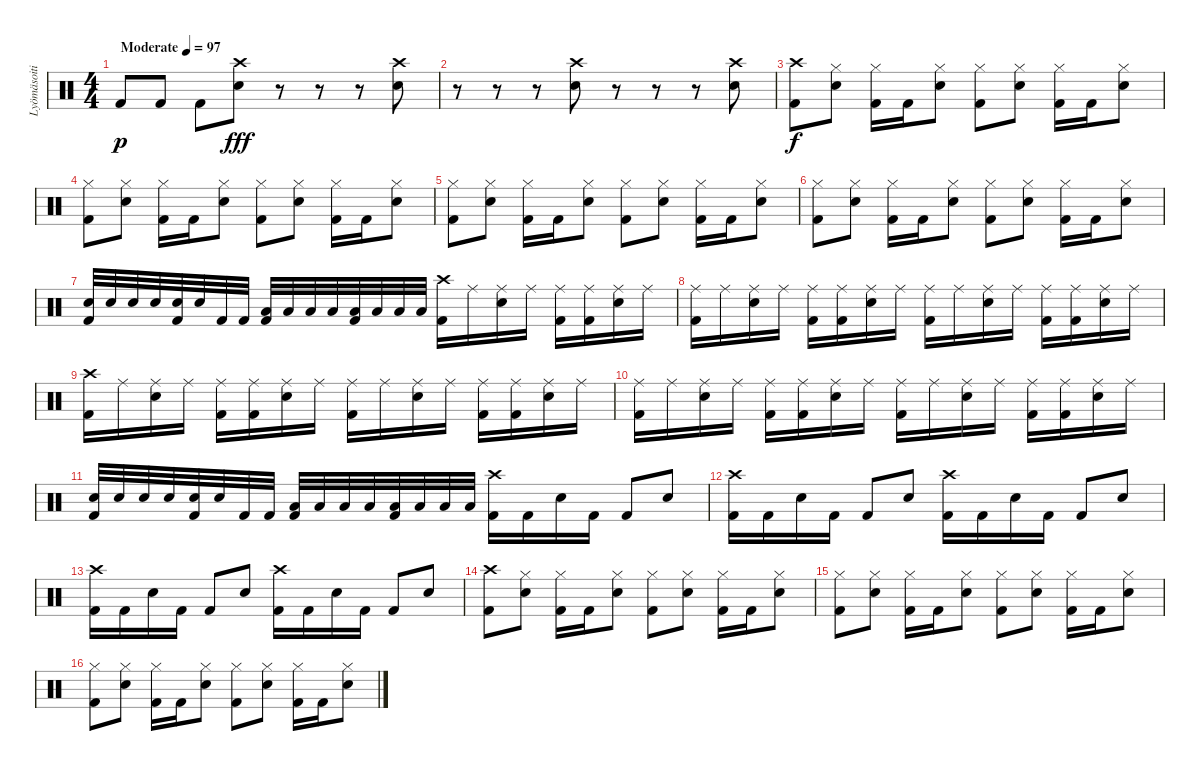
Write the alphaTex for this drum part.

\track ("Lyömäsoitin" "Lyömäsoiti") {mute instrument percussion}
\staff {score}
\articulation defaults
\ts (4 4)
\tempo (97 "Moderate")
\clef neutral
\ks c "Kick (hit) 2".8{dy p} "Kick (hit) 2".8 "Kick (hit) 2".8
("Crash high (hit)" "Snare (hit) 2").8{dy fff} r.8 r.8 r.8 ("Crash high (hit)" "Snare (hit) 2").8 |
r.8 r.8 r.8 ("Crash high (hit)" "Snare (hit) 2").8 r.8 r.8 r.8 ("Crash high (hit)" "Snare (hit) 2").8 |
("Crash high (hit)" "Kick (hit) 2").8{dy f} ("Hi-Hat (closed)" "Snare (hit) 2").8 ("Hi-Hat (closed)" "Kick (hit) 2").16 "Kick (hit) 2".16 ("Hi-Hat (closed)" "Snare (hit) 2").8 ("Hi-Hat (closed)" "Kick (hit) 2").8 ("Hi-Hat (closed)" "Snare (hit) 2").8 ("Hi-Hat (closed)" "Kick (hit) 2").16 "Kick (hit) 2".16 ("Hi-Hat (closed)" "Snare (hit) 2").8 |
("Hi-Hat (closed)" "Kick (hit) 2").8 ("Hi-Hat (closed)" "Snare (hit) 2").8 ("Hi-Hat (closed)" "Kick (hit) 2").16 "Kick (hit) 2".16 ("Hi-Hat (closed)" "Snare (hit) 2").8 ("Hi-Hat (closed)" "Kick (hit) 2").8 ("Hi-Hat (closed)" "Snare (hit) 2").8 ("Hi-Hat (closed)" "Kick (hit) 2").16 "Kick (hit) 2".16 ("Hi-Hat (closed)" "Snare (hit) 2").8 |
("Hi-Hat (closed)" "Kick (hit) 2").8 ("Hi-Hat (closed)" "Snare (hit) 2").8 ("Hi-Hat (closed)" "Kick (hit) 2").16 "Kick (hit) 2".16 ("Hi-Hat (closed)" "Snare (hit) 2").8 ("Hi-Hat (closed)" "Kick (hit) 2").8 ("Hi-Hat (closed)" "Snare (hit) 2").8 ("Hi-Hat (closed)" "Kick (hit) 2").16 "Kick (hit) 2".16 ("Hi-Hat (closed)" "Snare (hit) 2").8 |
("Hi-Hat (closed)" "Kick (hit) 2").8 ("Hi-Hat (closed)" "Snare (hit) 2").8 ("Hi-Hat (closed)" "Kick (hit) 2").16 "Kick (hit) 2".16 ("Hi-Hat (closed)" "Snare (hit) 2").8 ("Hi-Hat (closed)" "Kick (hit) 2").8 ("Hi-Hat (closed)" "Snare (hit) 2").8 ("Hi-Hat (closed)" "Kick (hit) 2").16 "Kick (hit) 2".16 ("Hi-Hat (closed)" "Snare (hit) 2").8 |
("Snare (hit) 2" "Kick (hit) 2").32 "Snare (hit) 2".32 "Snare (hit) 2".32 "Snare (hit) 2".32 ("Snare (hit) 2" "Kick (hit) 2").32 "Snare (hit) 2".32 "Kick (hit) 2".32 "Kick (hit) 2".32 ("Low Floor Tom (hit)" "Kick (hit) 2").32 "Low Floor Tom (hit)".32 "Low Floor Tom (hit)".32 "Low Floor Tom (hit)".32 ("Low Floor Tom (hit)" "Kick (hit) 2").32 "Low Floor Tom (hit)".32 "Low Floor Tom (hit)".32 "Low Floor Tom (hit)".32 ("Crash high (hit)" "Kick (hit) 2").16 "Ride (middle)".16 ("Ride (middle)" "Snare (hit) 2").16 "Ride (middle)".16 ("Ride (middle)" "Kick (hit) 2").16 ("Ride (middle)" "Kick (hit) 2").16 ("Ride (middle)" "Snare (hit) 2").16 "Ride (middle)".16 |
("Ride (middle)" "Kick (hit) 2").16 "Ride (middle)".16 ("Ride (middle)" "Snare (hit) 2").16 "Ride (middle)".16 ("Ride (middle)" "Kick (hit) 2").16 ("Ride (middle)" "Kick (hit) 2").16 ("Ride (middle)" "Snare (hit) 2").16 "Ride (middle)".16 ("Ride (middle)" "Kick (hit) 2").16 "Ride (middle)".16 ("Ride (middle)" "Snare (hit) 2").16 "Ride (middle)".16 ("Ride (middle)" "Kick (hit) 2").16 ("Ride (middle)" "Kick (hit) 2").16 ("Ride (middle)" "Snare (hit) 2").16 "Ride (middle)".16 |
("Crash high (hit)" "Kick (hit) 2").16 "Ride (middle)".16 ("Ride (middle)" "Snare (hit) 2").16 "Ride (middle)".16 ("Ride (middle)" "Kick (hit) 2").16 ("Ride (middle)" "Kick (hit) 2").16 ("Ride (middle)" "Snare (hit) 2").16 "Ride (middle)".16 ("Ride (middle)" "Kick (hit) 2").16 "Ride (middle)".16 ("Ride (middle)" "Snare (hit) 2").16 "Ride (middle)".16 ("Ride (middle)" "Kick (hit) 2").16 ("Ride (middle)" "Kick (hit) 2").16 ("Ride (middle)" "Snare (hit) 2").16 "Ride (middle)".16 |
("Ride (middle)" "Kick (hit) 2").16 "Ride (middle)".16 ("Ride (middle)" "Snare (hit) 2").16 "Ride (middle)".16 ("Ride (middle)" "Kick (hit) 2").16 ("Ride (middle)" "Kick (hit) 2").16 ("Ride (middle)" "Snare (hit) 2").16 "Ride (middle)".16 ("Ride (middle)" "Kick (hit) 2").16 "Ride (middle)".16 ("Ride (middle)" "Snare (hit) 2").16 "Ride (middle)".16 ("Ride (middle)" "Kick (hit) 2").16 ("Ride (middle)" "Kick (hit) 2").16 ("Ride (middle)" "Snare (hit) 2").16 "Ride (middle)".16 |
("Snare (hit) 2" "Kick (hit) 2").32 "Snare (hit) 2".32 "Snare (hit) 2".32 "Snare (hit) 2".32 ("Snare (hit) 2" "Kick (hit) 2").32 "Snare (hit) 2".32 "Kick (hit) 2".32 "Kick (hit) 2".32 ("Low Floor Tom (hit)" "Kick (hit) 2").32 "Low Floor Tom (hit)".32 "Low Floor Tom (hit)".32 "Low Floor Tom (hit)".32 ("Low Floor Tom (hit)" "Kick (hit) 2").32 "Low Floor Tom (hit)".32 "Low Floor Tom (hit)".32 "Low Floor Tom (hit)".32 ("Crash high (hit)" "Kick (hit) 2").16 "Kick (hit) 2".16 "Snare (hit) 2".16 "Kick (hit) 2".16 "Kick (hit) 2".8 "Snare (hit) 2".8 |
("Crash high (hit)" "Kick (hit) 2").16 "Kick (hit) 2".16 "Snare (hit) 2".16 "Kick (hit) 2".16 "Kick (hit) 2".8 "Snare (hit) 2".8 ("Crash high (hit)" "Kick (hit) 2").16 "Kick (hit) 2".16 "Snare (hit) 2".16 "Kick (hit) 2".16 "Kick (hit) 2".8 "Snare (hit) 2".8 |
("Crash high (hit)" "Kick (hit) 2").16 "Kick (hit) 2".16 "Snare (hit) 2".16 "Kick (hit) 2".16 "Kick (hit) 2".8 "Snare (hit) 2".8 ("Crash high (hit)" "Kick (hit) 2").16 "Kick (hit) 2".16 "Snare (hit) 2".16 "Kick (hit) 2".16 "Kick (hit) 2".8 "Snare (hit) 2".8 |
("Crash high (hit)" "Kick (hit) 2").8 ("Hi-Hat (closed)" "Snare (hit) 2").8 ("Hi-Hat (closed)" "Kick (hit) 2").16 "Kick (hit) 2".16 ("Hi-Hat (closed)" "Snare (hit) 2").8 ("Hi-Hat (closed)" "Kick (hit) 2").8 ("Hi-Hat (closed)" "Snare (hit) 2").8 ("Hi-Hat (closed)" "Kick (hit) 2").16 "Kick (hit) 2".16 ("Hi-Hat (closed)" "Snare (hit) 2").8 |
("Hi-Hat (closed)" "Kick (hit) 2").8 ("Hi-Hat (closed)" "Snare (hit) 2").8 ("Hi-Hat (closed)" "Kick (hit) 2").16 "Kick (hit) 2".16 ("Hi-Hat (closed)" "Snare (hit) 2").8 ("Hi-Hat (closed)" "Kick (hit) 2").8 ("Hi-Hat (closed)" "Snare (hit) 2").8 ("Hi-Hat (closed)" "Kick (hit) 2").16 "Kick (hit) 2".16 ("Hi-Hat (closed)" "Snare (hit) 2").8 |
("Hi-Hat (closed)" "Kick (hit) 2").8 ("Hi-Hat (closed)" "Snare (hit) 2").8 ("Hi-Hat (closed)" "Kick (hit) 2").16 "Kick (hit) 2".16 ("Hi-Hat (closed)" "Snare (hit) 2").8 ("Hi-Hat (closed)" "Kick (hit) 2").8 ("Hi-Hat (closed)" "Snare (hit) 2").8 ("Hi-Hat (closed)" "Kick (hit) 2").16 "Kick (hit) 2".16 ("Hi-Hat (closed)" "Snare (hit) 2").8
